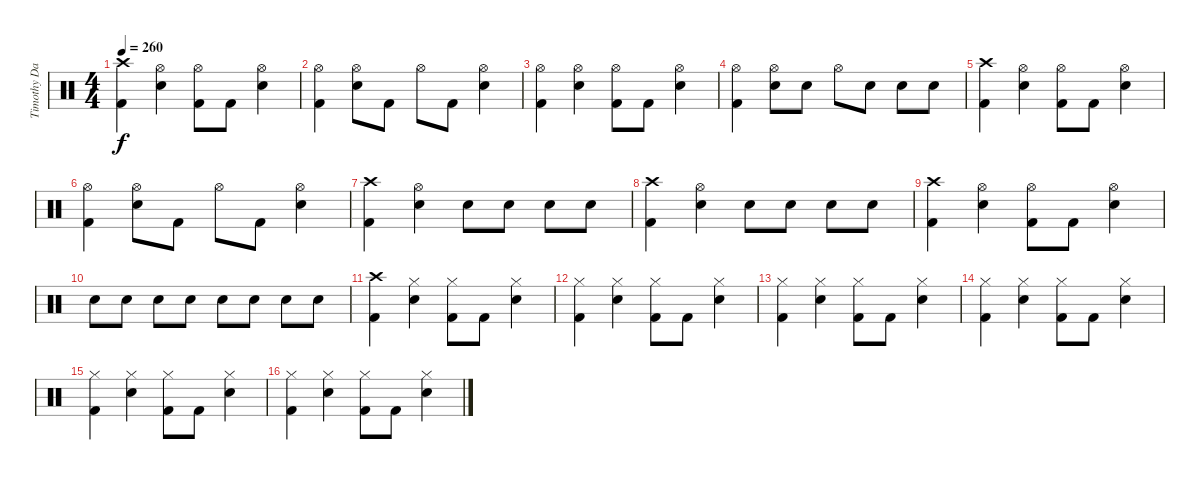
\track ("Timothy David Bollinger" "Timothy Da") {instrument percussion}
\staff {score}
\articulation defaults
\ts (4 4)
\tempo 260
\clef neutral
\ks c
("Crash high (hit)" "Kick (hit) 2").4{dy f} ("Hi-Hat (open)" "Electric Snare (hit)").4 ("Hi-Hat (open)" "Kick (hit) 2").8 "Kick (hit) 2".8 ("Hi-Hat (open)" "Electric Snare (hit)").4 |
("Hi-Hat (open)" "Kick (hit) 2").4 ("Hi-Hat (open)" "Electric Snare (hit)").8 "Kick (hit) 2".8 "Hi-Hat (open)".8 "Kick (hit) 2".8 ("Hi-Hat (open)" "Electric Snare (hit)").4 |
("Hi-Hat (open)" "Kick (hit) 2").4 ("Hi-Hat (open)" "Electric Snare (hit)").4 ("Hi-Hat (open)" "Kick (hit) 2").8 "Kick (hit) 2".8 ("Hi-Hat (open)" "Electric Snare (hit)").4 |
("Hi-Hat (open)" "Kick (hit) 2").4 ("Hi-Hat (open)" "Electric Snare (hit)").8 "Electric Snare (hit)".8 "Hi-Hat (open)".8 "Electric Snare (hit)".8 "Electric Snare (hit)".8 "Electric Snare (hit)".8 |
("Crash high (hit)" "Kick (hit) 2").4 ("Hi-Hat (open)" "Electric Snare (hit)").4 ("Hi-Hat (open)" "Kick (hit) 2").8 "Kick (hit) 2".8 ("Hi-Hat (open)" "Electric Snare (hit)").4 |
("Hi-Hat (open)" "Kick (hit) 2").4 ("Hi-Hat (open)" "Electric Snare (hit)").8 "Kick (hit) 2".8 "Hi-Hat (open)".8 "Kick (hit) 2".8 ("Hi-Hat (open)" "Electric Snare (hit)").4 |
("Crash high (hit)" "Kick (hit) 2").4 ("Hi-Hat (open)" "Electric Snare (hit)").4 "Electric Snare (hit)".8 "Electric Snare (hit)".8 "Electric Snare (hit)".8 "Electric Snare (hit)".8 |
("Crash high (hit)" "Kick (hit) 2").4 ("Hi-Hat (open)" "Electric Snare (hit)").4 "Electric Snare (hit)".8 "Electric Snare (hit)".8 "Electric Snare (hit)".8 "Electric Snare (hit)".8 |
("Crash high (hit)" "Kick (hit) 2").4 ("Hi-Hat (open)" "Electric Snare (hit)").4 ("Hi-Hat (open)" "Kick (hit) 2").8 "Kick (hit) 2".8 ("Hi-Hat (open)" "Electric Snare (hit)").4 |
"Electric Snare (hit)".8 "Electric Snare (hit)".8 "Electric Snare (hit)".8 "Electric Snare (hit)".8 "Electric Snare (hit)".8 "Electric Snare (hit)".8 "Electric Snare (hit)".8 "Electric Snare (hit)".8 |
("Crash high (hit)" "Kick (hit) 2").4 ("Hi-Hat (closed)" "Electric Snare (hit)").4 ("Hi-Hat (closed)" "Kick (hit) 2").8 "Kick (hit) 2".8 ("Hi-Hat (closed)" "Electric Snare (hit)").4 |
("Hi-Hat (closed)" "Kick (hit) 2").4 ("Hi-Hat (closed)" "Electric Snare (hit)").4 ("Hi-Hat (closed)" "Kick (hit) 2").8 "Kick (hit) 2".8 ("Hi-Hat (closed)" "Electric Snare (hit)").4 |
("Hi-Hat (closed)" "Kick (hit) 2").4 ("Hi-Hat (closed)" "Electric Snare (hit)").4 ("Hi-Hat (closed)" "Kick (hit) 2").8 "Kick (hit) 2".8 ("Hi-Hat (closed)" "Electric Snare (hit)").4 |
("Hi-Hat (closed)" "Kick (hit) 2").4 ("Hi-Hat (closed)" "Electric Snare (hit)").4 ("Hi-Hat (closed)" "Kick (hit) 2").8 "Kick (hit) 2".8 ("Hi-Hat (closed)" "Electric Snare (hit)").4 |
("Hi-Hat (closed)" "Kick (hit) 2").4 ("Hi-Hat (closed)" "Electric Snare (hit)").4 ("Hi-Hat (closed)" "Kick (hit) 2").8 "Kick (hit) 2".8 ("Hi-Hat (closed)" "Electric Snare (hit)").4 |
("Hi-Hat (closed)" "Kick (hit) 2").4 ("Hi-Hat (closed)" "Electric Snare (hit)").4 ("Hi-Hat (closed)" "Kick (hit) 2").8 "Kick (hit) 2".8 ("Hi-Hat (closed)" "Electric Snare (hit)").4
